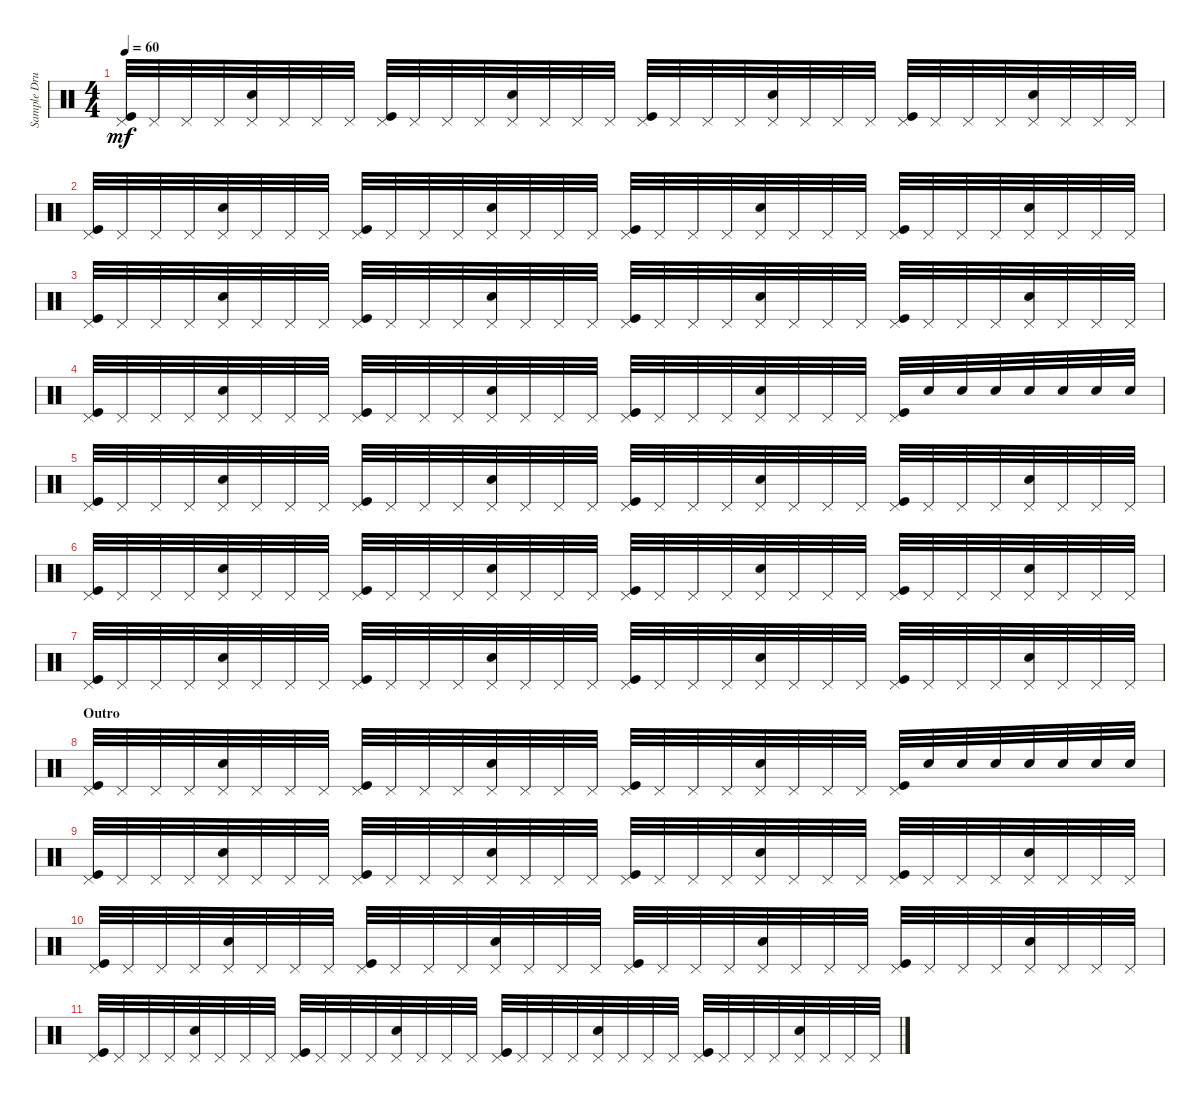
\track ("Sample Drums" "Sample Dru") {instrument percussion}
\staff {score}
\articulation defaults
\ts (4 4)
\tempo 60
\clef neutral
\ks c
("Pedal Hi-Hat (hit)" "Kick (hit)").32{dy mf} "Pedal Hi-Hat (hit)".32 "Pedal Hi-Hat (hit)".32 "Pedal Hi-Hat (hit)".32 ("Pedal Hi-Hat (hit)" "Snare (hit) 2").32 "Pedal Hi-Hat (hit)".32 "Pedal Hi-Hat (hit)".32 "Pedal Hi-Hat (hit)".32 ("Pedal Hi-Hat (hit)" "Kick (hit)").32 "Pedal Hi-Hat (hit)".32 "Pedal Hi-Hat (hit)".32 "Pedal Hi-Hat (hit)".32 ("Pedal Hi-Hat (hit)" "Snare (hit) 2").32 "Pedal Hi-Hat (hit)".32 "Pedal Hi-Hat (hit)".32 "Pedal Hi-Hat (hit)".32 ("Pedal Hi-Hat (hit)" "Kick (hit)").32 "Pedal Hi-Hat (hit)".32 "Pedal Hi-Hat (hit)".32 "Pedal Hi-Hat (hit)".32 ("Pedal Hi-Hat (hit)" "Snare (hit) 2").32 "Pedal Hi-Hat (hit)".32 "Pedal Hi-Hat (hit)".32 "Pedal Hi-Hat (hit)".32 ("Pedal Hi-Hat (hit)" "Kick (hit)").32 "Pedal Hi-Hat (hit)".32 "Pedal Hi-Hat (hit)".32 "Pedal Hi-Hat (hit)".32 ("Pedal Hi-Hat (hit)" "Snare (hit) 2").32 "Pedal Hi-Hat (hit)".32 "Pedal Hi-Hat (hit)".32 "Pedal Hi-Hat (hit)".32 |
("Pedal Hi-Hat (hit)" "Kick (hit)").32 "Pedal Hi-Hat (hit)".32 "Pedal Hi-Hat (hit)".32 "Pedal Hi-Hat (hit)".32 ("Pedal Hi-Hat (hit)" "Snare (hit) 2").32 "Pedal Hi-Hat (hit)".32 "Pedal Hi-Hat (hit)".32 "Pedal Hi-Hat (hit)".32 ("Pedal Hi-Hat (hit)" "Kick (hit)").32 "Pedal Hi-Hat (hit)".32 "Pedal Hi-Hat (hit)".32 "Pedal Hi-Hat (hit)".32 ("Pedal Hi-Hat (hit)" "Snare (hit) 2").32 "Pedal Hi-Hat (hit)".32 "Pedal Hi-Hat (hit)".32 "Pedal Hi-Hat (hit)".32 ("Pedal Hi-Hat (hit)" "Kick (hit)").32 "Pedal Hi-Hat (hit)".32 "Pedal Hi-Hat (hit)".32 "Pedal Hi-Hat (hit)".32 ("Pedal Hi-Hat (hit)" "Snare (hit) 2").32 "Pedal Hi-Hat (hit)".32 "Pedal Hi-Hat (hit)".32 "Pedal Hi-Hat (hit)".32 ("Pedal Hi-Hat (hit)" "Kick (hit)").32 "Pedal Hi-Hat (hit)".32 "Pedal Hi-Hat (hit)".32 "Pedal Hi-Hat (hit)".32 ("Pedal Hi-Hat (hit)" "Snare (hit) 2").32 "Pedal Hi-Hat (hit)".32 "Pedal Hi-Hat (hit)".32 "Pedal Hi-Hat (hit)".32 |
("Pedal Hi-Hat (hit)" "Kick (hit)").32 "Pedal Hi-Hat (hit)".32 "Pedal Hi-Hat (hit)".32 "Pedal Hi-Hat (hit)".32 ("Pedal Hi-Hat (hit)" "Snare (hit) 2").32 "Pedal Hi-Hat (hit)".32 "Pedal Hi-Hat (hit)".32 "Pedal Hi-Hat (hit)".32 ("Pedal Hi-Hat (hit)" "Kick (hit)").32 "Pedal Hi-Hat (hit)".32 "Pedal Hi-Hat (hit)".32 "Pedal Hi-Hat (hit)".32 ("Pedal Hi-Hat (hit)" "Snare (hit) 2").32 "Pedal Hi-Hat (hit)".32 "Pedal Hi-Hat (hit)".32 "Pedal Hi-Hat (hit)".32 ("Pedal Hi-Hat (hit)" "Kick (hit)").32 "Pedal Hi-Hat (hit)".32 "Pedal Hi-Hat (hit)".32 "Pedal Hi-Hat (hit)".32 ("Pedal Hi-Hat (hit)" "Snare (hit) 2").32 "Pedal Hi-Hat (hit)".32 "Pedal Hi-Hat (hit)".32 "Pedal Hi-Hat (hit)".32 ("Pedal Hi-Hat (hit)" "Kick (hit)").32 "Pedal Hi-Hat (hit)".32 "Pedal Hi-Hat (hit)".32 "Pedal Hi-Hat (hit)".32 ("Pedal Hi-Hat (hit)" "Snare (hit) 2").32 "Pedal Hi-Hat (hit)".32 "Pedal Hi-Hat (hit)".32 "Pedal Hi-Hat (hit)".32 |
("Pedal Hi-Hat (hit)" "Kick (hit)").32 "Pedal Hi-Hat (hit)".32 "Pedal Hi-Hat (hit)".32 "Pedal Hi-Hat (hit)".32 ("Pedal Hi-Hat (hit)" "Snare (hit) 2").32 "Pedal Hi-Hat (hit)".32 "Pedal Hi-Hat (hit)".32 "Pedal Hi-Hat (hit)".32 ("Pedal Hi-Hat (hit)" "Kick (hit)").32 "Pedal Hi-Hat (hit)".32 "Pedal Hi-Hat (hit)".32 "Pedal Hi-Hat (hit)".32 ("Pedal Hi-Hat (hit)" "Snare (hit) 2").32 "Pedal Hi-Hat (hit)".32 "Pedal Hi-Hat (hit)".32 "Pedal Hi-Hat (hit)".32 ("Pedal Hi-Hat (hit)" "Kick (hit)").32 "Pedal Hi-Hat (hit)".32 "Pedal Hi-Hat (hit)".32 "Pedal Hi-Hat (hit)".32 ("Pedal Hi-Hat (hit)" "Snare (hit) 2").32 "Pedal Hi-Hat (hit)".32 "Pedal Hi-Hat (hit)".32 "Pedal Hi-Hat (hit)".32 ("Pedal Hi-Hat (hit)" "Kick (hit)").32 "Snare (hit) 2".32 "Snare (hit) 2".32 "Snare (hit) 2".32 "Snare (hit) 2".32 "Snare (hit) 2".32 "Snare (hit) 2".32 "Snare (hit) 2".32 |
("Pedal Hi-Hat (hit)" "Kick (hit)").32 "Pedal Hi-Hat (hit)".32 "Pedal Hi-Hat (hit)".32 "Pedal Hi-Hat (hit)".32 ("Pedal Hi-Hat (hit)" "Snare (hit) 2").32 "Pedal Hi-Hat (hit)".32 "Pedal Hi-Hat (hit)".32 "Pedal Hi-Hat (hit)".32 ("Pedal Hi-Hat (hit)" "Kick (hit)").32 "Pedal Hi-Hat (hit)".32 "Pedal Hi-Hat (hit)".32 "Pedal Hi-Hat (hit)".32 ("Pedal Hi-Hat (hit)" "Snare (hit) 2").32 "Pedal Hi-Hat (hit)".32 "Pedal Hi-Hat (hit)".32 "Pedal Hi-Hat (hit)".32 ("Pedal Hi-Hat (hit)" "Kick (hit)").32 "Pedal Hi-Hat (hit)".32 "Pedal Hi-Hat (hit)".32 "Pedal Hi-Hat (hit)".32 ("Pedal Hi-Hat (hit)" "Snare (hit) 2").32 "Pedal Hi-Hat (hit)".32 "Pedal Hi-Hat (hit)".32 "Pedal Hi-Hat (hit)".32 ("Pedal Hi-Hat (hit)" "Kick (hit)").32 "Pedal Hi-Hat (hit)".32 "Pedal Hi-Hat (hit)".32 "Pedal Hi-Hat (hit)".32 ("Pedal Hi-Hat (hit)" "Snare (hit) 2").32 "Pedal Hi-Hat (hit)".32 "Pedal Hi-Hat (hit)".32 "Pedal Hi-Hat (hit)".32 |
("Pedal Hi-Hat (hit)" "Kick (hit)").32 "Pedal Hi-Hat (hit)".32 "Pedal Hi-Hat (hit)".32 "Pedal Hi-Hat (hit)".32 ("Pedal Hi-Hat (hit)" "Snare (hit) 2").32 "Pedal Hi-Hat (hit)".32 "Pedal Hi-Hat (hit)".32 "Pedal Hi-Hat (hit)".32 ("Pedal Hi-Hat (hit)" "Kick (hit)").32 "Pedal Hi-Hat (hit)".32 "Pedal Hi-Hat (hit)".32 "Pedal Hi-Hat (hit)".32 ("Pedal Hi-Hat (hit)" "Snare (hit) 2").32 "Pedal Hi-Hat (hit)".32 "Pedal Hi-Hat (hit)".32 "Pedal Hi-Hat (hit)".32 ("Pedal Hi-Hat (hit)" "Kick (hit)").32 "Pedal Hi-Hat (hit)".32 "Pedal Hi-Hat (hit)".32 "Pedal Hi-Hat (hit)".32 ("Pedal Hi-Hat (hit)" "Snare (hit) 2").32 "Pedal Hi-Hat (hit)".32 "Pedal Hi-Hat (hit)".32 "Pedal Hi-Hat (hit)".32 ("Pedal Hi-Hat (hit)" "Kick (hit)").32 "Pedal Hi-Hat (hit)".32 "Pedal Hi-Hat (hit)".32 "Pedal Hi-Hat (hit)".32 ("Pedal Hi-Hat (hit)" "Snare (hit) 2").32 "Pedal Hi-Hat (hit)".32 "Pedal Hi-Hat (hit)".32 "Pedal Hi-Hat (hit)".32 |
("Pedal Hi-Hat (hit)" "Kick (hit)").32 "Pedal Hi-Hat (hit)".32 "Pedal Hi-Hat (hit)".32 "Pedal Hi-Hat (hit)".32 ("Pedal Hi-Hat (hit)" "Snare (hit) 2").32 "Pedal Hi-Hat (hit)".32 "Pedal Hi-Hat (hit)".32 "Pedal Hi-Hat (hit)".32 ("Pedal Hi-Hat (hit)" "Kick (hit)").32 "Pedal Hi-Hat (hit)".32 "Pedal Hi-Hat (hit)".32 "Pedal Hi-Hat (hit)".32 ("Pedal Hi-Hat (hit)" "Snare (hit) 2").32 "Pedal Hi-Hat (hit)".32 "Pedal Hi-Hat (hit)".32 "Pedal Hi-Hat (hit)".32 ("Pedal Hi-Hat (hit)" "Kick (hit)").32 "Pedal Hi-Hat (hit)".32 "Pedal Hi-Hat (hit)".32 "Pedal Hi-Hat (hit)".32 ("Pedal Hi-Hat (hit)" "Snare (hit) 2").32 "Pedal Hi-Hat (hit)".32 "Pedal Hi-Hat (hit)".32 "Pedal Hi-Hat (hit)".32 ("Pedal Hi-Hat (hit)" "Kick (hit)").32 "Pedal Hi-Hat (hit)".32 "Pedal Hi-Hat (hit)".32 "Pedal Hi-Hat (hit)".32 ("Pedal Hi-Hat (hit)" "Snare (hit) 2").32 "Pedal Hi-Hat (hit)".32 "Pedal Hi-Hat (hit)".32 "Pedal Hi-Hat (hit)".32 |
\section ("" "Outro")
("Pedal Hi-Hat (hit)" "Kick (hit)").32 "Pedal Hi-Hat (hit)".32 "Pedal Hi-Hat (hit)".32 "Pedal Hi-Hat (hit)".32 ("Pedal Hi-Hat (hit)" "Snare (hit) 2").32 "Pedal Hi-Hat (hit)".32 "Pedal Hi-Hat (hit)".32 "Pedal Hi-Hat (hit)".32 ("Pedal Hi-Hat (hit)" "Kick (hit)").32 "Pedal Hi-Hat (hit)".32 "Pedal Hi-Hat (hit)".32 "Pedal Hi-Hat (hit)".32 ("Pedal Hi-Hat (hit)" "Snare (hit) 2").32 "Pedal Hi-Hat (hit)".32 "Pedal Hi-Hat (hit)".32 "Pedal Hi-Hat (hit)".32 ("Pedal Hi-Hat (hit)" "Kick (hit)").32 "Pedal Hi-Hat (hit)".32 "Pedal Hi-Hat (hit)".32 "Pedal Hi-Hat (hit)".32 ("Pedal Hi-Hat (hit)" "Snare (hit) 2").32 "Pedal Hi-Hat (hit)".32 "Pedal Hi-Hat (hit)".32 "Pedal Hi-Hat (hit)".32 ("Pedal Hi-Hat (hit)" "Kick (hit)").32 "Snare (hit) 2".32 "Snare (hit) 2".32 "Snare (hit) 2".32 "Snare (hit) 2".32 "Snare (hit) 2".32 "Snare (hit) 2".32 "Snare (hit) 2".32 |
("Pedal Hi-Hat (hit)" "Kick (hit)").32 "Pedal Hi-Hat (hit)".32 "Pedal Hi-Hat (hit)".32 "Pedal Hi-Hat (hit)".32 ("Pedal Hi-Hat (hit)" "Snare (hit) 2").32 "Pedal Hi-Hat (hit)".32 "Pedal Hi-Hat (hit)".32 "Pedal Hi-Hat (hit)".32 ("Pedal Hi-Hat (hit)" "Kick (hit)").32 "Pedal Hi-Hat (hit)".32 "Pedal Hi-Hat (hit)".32 "Pedal Hi-Hat (hit)".32 ("Pedal Hi-Hat (hit)" "Snare (hit) 2").32 "Pedal Hi-Hat (hit)".32 "Pedal Hi-Hat (hit)".32 "Pedal Hi-Hat (hit)".32 ("Pedal Hi-Hat (hit)" "Kick (hit)").32 "Pedal Hi-Hat (hit)".32 "Pedal Hi-Hat (hit)".32 "Pedal Hi-Hat (hit)".32 ("Pedal Hi-Hat (hit)" "Snare (hit) 2").32 "Pedal Hi-Hat (hit)".32 "Pedal Hi-Hat (hit)".32 "Pedal Hi-Hat (hit)".32 ("Pedal Hi-Hat (hit)" "Kick (hit)").32 "Pedal Hi-Hat (hit)".32 "Pedal Hi-Hat (hit)".32 "Pedal Hi-Hat (hit)".32 ("Pedal Hi-Hat (hit)" "Snare (hit) 2").32 "Pedal Hi-Hat (hit)".32 "Pedal Hi-Hat (hit)".32 "Pedal Hi-Hat (hit)".32 |
("Pedal Hi-Hat (hit)" "Kick (hit)").32 "Pedal Hi-Hat (hit)".32 "Pedal Hi-Hat (hit)".32 "Pedal Hi-Hat (hit)".32 ("Pedal Hi-Hat (hit)" "Snare (hit) 2").32 "Pedal Hi-Hat (hit)".32 "Pedal Hi-Hat (hit)".32 "Pedal Hi-Hat (hit)".32 ("Pedal Hi-Hat (hit)" "Kick (hit)").32 "Pedal Hi-Hat (hit)".32 "Pedal Hi-Hat (hit)".32 "Pedal Hi-Hat (hit)".32 ("Pedal Hi-Hat (hit)" "Snare (hit) 2").32 "Pedal Hi-Hat (hit)".32 "Pedal Hi-Hat (hit)".32 "Pedal Hi-Hat (hit)".32 ("Pedal Hi-Hat (hit)" "Kick (hit)").32 "Pedal Hi-Hat (hit)".32 "Pedal Hi-Hat (hit)".32 "Pedal Hi-Hat (hit)".32 ("Pedal Hi-Hat (hit)" "Snare (hit) 2").32 "Pedal Hi-Hat (hit)".32 "Pedal Hi-Hat (hit)".32 "Pedal Hi-Hat (hit)".32 ("Pedal Hi-Hat (hit)" "Kick (hit)").32 "Pedal Hi-Hat (hit)".32 "Pedal Hi-Hat (hit)".32 "Pedal Hi-Hat (hit)".32 ("Pedal Hi-Hat (hit)" "Snare (hit) 2").32 "Pedal Hi-Hat (hit)".32 "Pedal Hi-Hat (hit)".32 "Pedal Hi-Hat (hit)".32 |
("Pedal Hi-Hat (hit)" "Kick (hit)").32 "Pedal Hi-Hat (hit)".32 "Pedal Hi-Hat (hit)".32 "Pedal Hi-Hat (hit)".32 ("Pedal Hi-Hat (hit)" "Snare (hit) 2").32 "Pedal Hi-Hat (hit)".32 "Pedal Hi-Hat (hit)".32 "Pedal Hi-Hat (hit)".32 ("Pedal Hi-Hat (hit)" "Kick (hit)").32 "Pedal Hi-Hat (hit)".32 "Pedal Hi-Hat (hit)".32 "Pedal Hi-Hat (hit)".32 ("Pedal Hi-Hat (hit)" "Snare (hit) 2").32 "Pedal Hi-Hat (hit)".32 "Pedal Hi-Hat (hit)".32 "Pedal Hi-Hat (hit)".32 ("Pedal Hi-Hat (hit)" "Kick (hit)").32 "Pedal Hi-Hat (hit)".32 "Pedal Hi-Hat (hit)".32 "Pedal Hi-Hat (hit)".32 ("Pedal Hi-Hat (hit)" "Snare (hit) 2").32 "Pedal Hi-Hat (hit)".32 "Pedal Hi-Hat (hit)".32 "Pedal Hi-Hat (hit)".32 ("Pedal Hi-Hat (hit)" "Kick (hit)").32 "Pedal Hi-Hat (hit)".32 "Pedal Hi-Hat (hit)".32 "Pedal Hi-Hat (hit)".32 ("Pedal Hi-Hat (hit)" "Snare (hit) 2").32 "Pedal Hi-Hat (hit)".32 "Pedal Hi-Hat (hit)".32 "Pedal Hi-Hat (hit)".32
